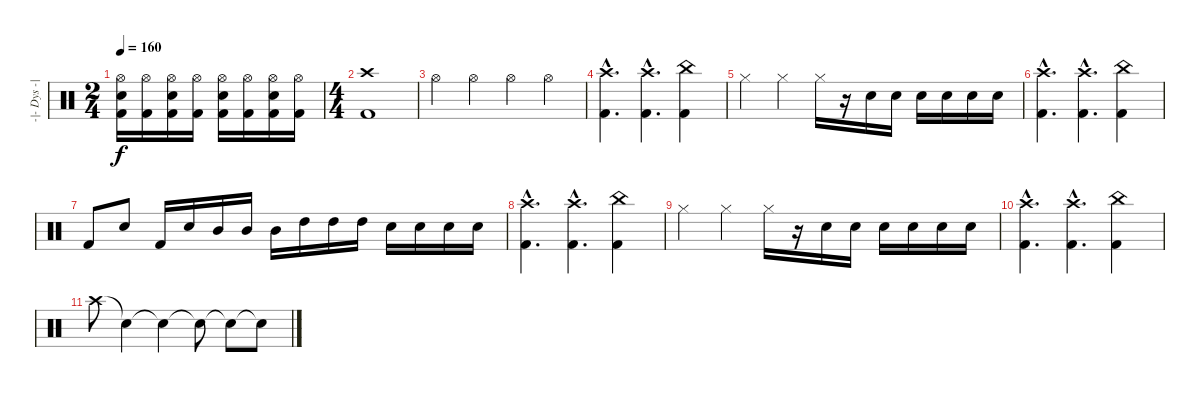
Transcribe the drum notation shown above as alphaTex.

\track ("-|- Dys -|-" "-|- Dys -|") {instrument percussion}
\staff {score}
\articulation defaults
\ts (2 4)
\tempo 160
\clef neutral
\ks c
("Hi-Hat (open)" "Snare (hit) 2" "Kick (hit) 2").16{dy f} ("Hi-Hat (open)" "Kick (hit) 2").16 ("Hi-Hat (open)" "Snare (hit) 2" "Kick (hit) 2").16 ("Hi-Hat (open)" "Kick (hit) 2").16 ("Hi-Hat (open)" "Snare (hit) 2" "Kick (hit) 2").16 ("Hi-Hat (open)" "Kick (hit) 2").16 ("Hi-Hat (open)" "Snare (hit) 2" "Kick (hit) 2").16 ("Hi-Hat (open)" "Kick (hit) 2").16 |
\ts (4 4)
("Crash high (hit)" "Kick (hit) 2").1 |
"Hi-Hat (open)".4 "Hi-Hat (open)".4 "Hi-Hat (open)".4 "Hi-Hat (open)".4 |
("Crash high (hit)"{hac} "Kick (hit) 2"{hac}).4{d} ("Crash high (hit)"{hac} "Kick (hit) 2"{hac}).4{d} ("China (hit)" "Kick (hit) 2").4 |
"Hi-Hat (closed)".4 "Hi-Hat (closed)".4 "Hi-Hat (closed)".16 r.16 "Snare (hit) 2".16 "Snare (hit) 2".16 "Snare (hit) 2".16 "Snare (hit) 2".16 "Snare (hit) 2".16 "Snare (hit) 2".16 |
("Crash high (hit)"{hac} "Kick (hit) 2"{hac}).4{d} ("Crash high (hit)"{hac} "Kick (hit) 2"{hac}).4{d} ("China (hit)" "Kick (hit) 2").4 |
"Kick (hit) 2".8 "Snare (hit) 2".8 "Kick (hit) 2".16 "Snare (hit) 2".16 "Mid Tom (hit)".16 "Mid Tom (hit)".16 "Mid Tom (hit)".16 "High Tom (hit)".16 "High Tom (hit)".16 "High Tom (hit)".16 "Snare (hit) 2".16 "Snare (hit) 2".16 "Snare (hit) 2".16 "Snare (hit) 2".16 |
("Crash high (hit)"{hac} "Kick (hit) 2"{hac}).4{d} ("Crash high (hit)"{hac} "Kick (hit) 2"{hac}).4{d} ("China (hit)" "Kick (hit) 2").4 |
"Hi-Hat (closed)".4 "Hi-Hat (closed)".4 "Hi-Hat (closed)".16 r.16 "Snare (hit) 2".16 "Snare (hit) 2".16 "Snare (hit) 2".16 "Snare (hit) 2".16 "Snare (hit) 2".16 "Snare (hit) 2".16 |
("Crash high (hit)"{hac} "Kick (hit) 2"{hac}).4{d} ("Crash high (hit)"{hac} "Kick (hit) 2"{hac}).4{d} ("China (hit)" "Kick (hit) 2").4 |
"Crash high (hit)".8 "Snare (hit)"{t}.4 "Snare (hit)"{t}.4 "Snare (hit)"{t}.8 "Snare (hit)"{t}.8 "Snare (hit)"{t}.8
